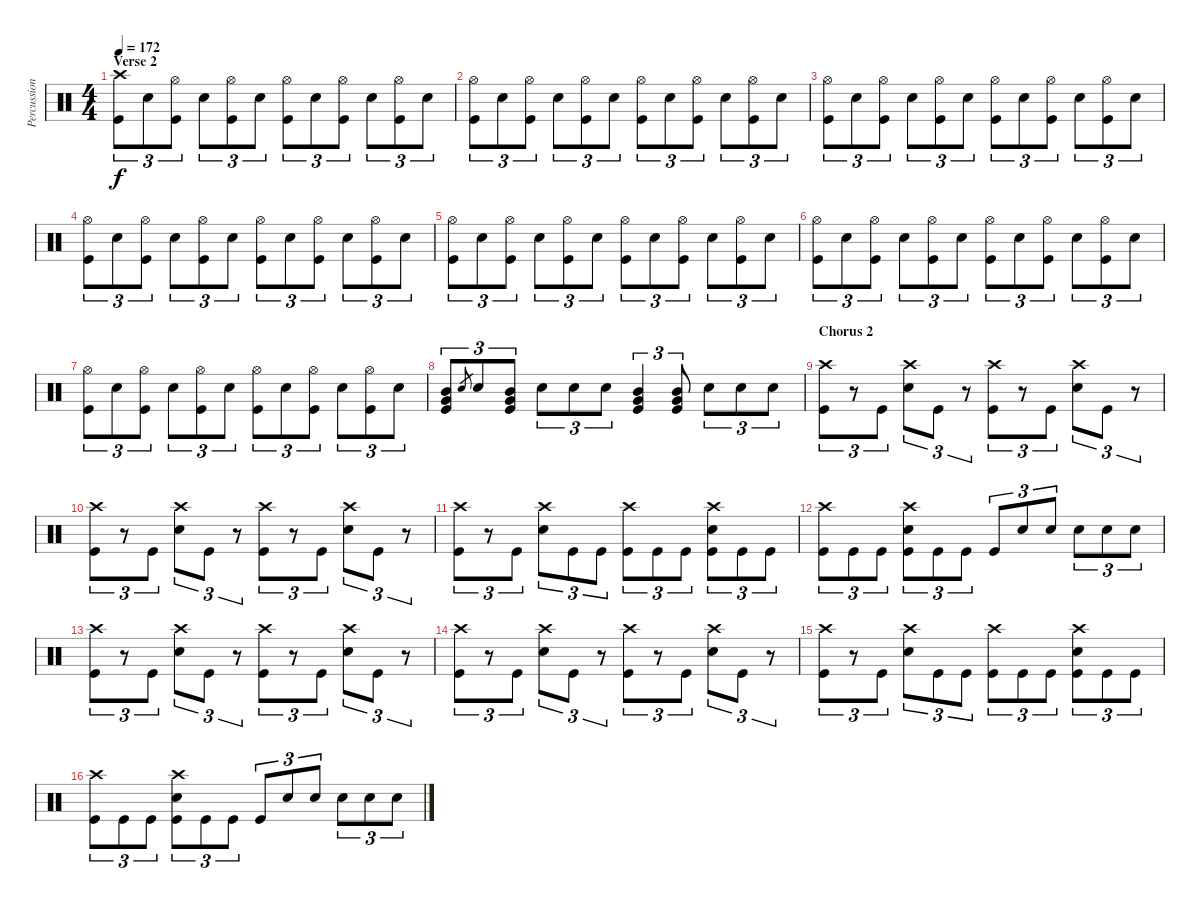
\track ("Percussion" "Percussion") {instrument percussion}
\staff {score}
\articulation defaults
\ts (4 4)
\section ("" "Verse 2")
\tempo 172
\clef neutral
\ks c
("Crash high (hit)" "Kick (hit)").8{tu (3 2) dy f} "Snare (hit) 2".8{tu (3 2)} ("Hi-Hat (open)" "Kick (hit)").8{tu (3 2)} "Snare (hit) 2".8{tu (3 2)} ("Hi-Hat (open)" "Kick (hit)").8{tu (3 2)} "Snare (hit) 2".8{tu (3 2)} ("Hi-Hat (open)" "Kick (hit)").8{tu (3 2)} "Snare (hit) 2".8{tu (3 2)} ("Hi-Hat (open)" "Kick (hit)").8{tu (3 2)} "Snare (hit) 2".8{tu (3 2)} ("Hi-Hat (open)" "Kick (hit)").8{tu (3 2)} "Snare (hit) 2".8{tu (3 2)} |
("Hi-Hat (open)" "Kick (hit)").8{tu (3 2)} "Snare (hit) 2".8{tu (3 2)} ("Hi-Hat (open)" "Kick (hit)").8{tu (3 2)} "Snare (hit) 2".8{tu (3 2)} ("Hi-Hat (open)" "Kick (hit)").8{tu (3 2)} "Snare (hit) 2".8{tu (3 2)} ("Hi-Hat (open)" "Kick (hit)").8{tu (3 2)} "Snare (hit) 2".8{tu (3 2)} ("Hi-Hat (open)" "Kick (hit)").8{tu (3 2)} "Snare (hit) 2".8{tu (3 2)} ("Hi-Hat (open)" "Kick (hit)").8{tu (3 2)} "Snare (hit) 2".8{tu (3 2)} |
("Hi-Hat (open)" "Kick (hit)").8{tu (3 2)} "Snare (hit) 2".8{tu (3 2)} ("Hi-Hat (open)" "Kick (hit)").8{tu (3 2)} "Snare (hit) 2".8{tu (3 2)} ("Hi-Hat (open)" "Kick (hit)").8{tu (3 2)} "Snare (hit) 2".8{tu (3 2)} ("Hi-Hat (open)" "Kick (hit)").8{tu (3 2)} "Snare (hit) 2".8{tu (3 2)} ("Hi-Hat (open)" "Kick (hit)").8{tu (3 2)} "Snare (hit) 2".8{tu (3 2)} ("Hi-Hat (open)" "Kick (hit)").8{tu (3 2)} "Snare (hit) 2".8{tu (3 2)} |
("Hi-Hat (open)" "Kick (hit)").8{tu (3 2)} "Snare (hit) 2".8{tu (3 2)} ("Hi-Hat (open)" "Kick (hit)").8{tu (3 2)} "Snare (hit) 2".8{tu (3 2)} ("Hi-Hat (open)" "Kick (hit)").8{tu (3 2)} "Snare (hit) 2".8{tu (3 2)} ("Hi-Hat (open)" "Kick (hit)").8{tu (3 2)} "Snare (hit) 2".8{tu (3 2)} ("Hi-Hat (open)" "Kick (hit)").8{tu (3 2)} "Snare (hit) 2".8{tu (3 2)} ("Hi-Hat (open)" "Kick (hit)").8{tu (3 2)} "Snare (hit) 2".8{tu (3 2)} |
("Hi-Hat (open)" "Kick (hit)").8{tu (3 2)} "Snare (hit) 2".8{tu (3 2)} ("Hi-Hat (open)" "Kick (hit)").8{tu (3 2)} "Snare (hit) 2".8{tu (3 2)} ("Hi-Hat (open)" "Kick (hit)").8{tu (3 2)} "Snare (hit) 2".8{tu (3 2)} ("Hi-Hat (open)" "Kick (hit)").8{tu (3 2)} "Snare (hit) 2".8{tu (3 2)} ("Hi-Hat (open)" "Kick (hit)").8{tu (3 2)} "Snare (hit) 2".8{tu (3 2)} ("Hi-Hat (open)" "Kick (hit)").8{tu (3 2)} "Snare (hit) 2".8{tu (3 2)} |
("Hi-Hat (open)" "Kick (hit)").8{tu (3 2)} "Snare (hit) 2".8{tu (3 2)} ("Hi-Hat (open)" "Kick (hit)").8{tu (3 2)} "Snare (hit) 2".8{tu (3 2)} ("Hi-Hat (open)" "Kick (hit)").8{tu (3 2)} "Snare (hit) 2".8{tu (3 2)} ("Hi-Hat (open)" "Kick (hit)").8{tu (3 2)} "Snare (hit) 2".8{tu (3 2)} ("Hi-Hat (open)" "Kick (hit)").8{tu (3 2)} "Snare (hit) 2".8{tu (3 2)} ("Hi-Hat (open)" "Kick (hit)").8{tu (3 2)} "Snare (hit) 2".8{tu (3 2)} |
("Hi-Hat (open)" "Kick (hit)").8{tu (3 2)} "Snare (hit) 2".8{tu (3 2)} ("Hi-Hat (open)" "Kick (hit)").8{tu (3 2)} "Snare (hit) 2".8{tu (3 2)} ("Hi-Hat (open)" "Kick (hit)").8{tu (3 2)} "Snare (hit) 2".8{tu (3 2)} ("Hi-Hat (open)" "Kick (hit)").8{tu (3 2)} "Snare (hit) 2".8{tu (3 2)} ("Hi-Hat (open)" "Kick (hit)").8{tu (3 2)} "Snare (hit) 2".8{tu (3 2)} ("Hi-Hat (open)" "Kick (hit)").8{tu (3 2)} "Snare (hit) 2".8{tu (3 2)} |
("Mid Tom (hit)" "Very Low Tom (hit)" "Kick (hit)").8{tu (3 2)} "Snare (hit) 2".8{gr} "Snare (hit) 2".8{tu (3 2)} ("Mid Tom (hit)" "Very Low Tom (hit)" "Kick (hit)").8{tu (3 2)} "Snare (hit) 2".8{tu (3 2)} "Snare (hit) 2".8{tu (3 2)} "Snare (hit) 2".8{tu (3 2)} ("Mid Tom (hit)" "Very Low Tom (hit)" "Kick (hit)").4{tu (3 2)} ("Mid Tom (hit)" "Very Low Tom (hit)" "Kick (hit)").8{tu (3 2)} "Snare (hit) 2".8{tu (3 2)} "Snare (hit) 2".8{tu (3 2)} "Snare (hit) 2".8{tu (3 2)} |
\section ("" "Chorus 2")
("Crash high (hit)" "Kick (hit)").8{tu (3 2)} r.8{tu (3 2)} "Kick (hit)".8{tu (3 2)} ("Crash high (hit)" "Snare (hit) 2").8{tu (3 2)} "Kick (hit)".8{tu (3 2)} r.8{tu (3 2)} ("Crash high (hit)" "Kick (hit)").8{tu (3 2)} r.8{tu (3 2)} "Kick (hit)".8{tu (3 2)} ("Crash high (hit)" "Snare (hit) 2").8{tu (3 2)} "Kick (hit)".8{tu (3 2)} r.8{tu (3 2)} |
("Crash high (hit)" "Kick (hit)").8{tu (3 2)} r.8{tu (3 2)} "Kick (hit)".8{tu (3 2)} ("Crash high (hit)" "Snare (hit) 2").8{tu (3 2)} "Kick (hit)".8{tu (3 2)} r.8{tu (3 2)} ("Crash high (hit)" "Kick (hit)").8{tu (3 2)} r.8{tu (3 2)} "Kick (hit)".8{tu (3 2)} ("Crash high (hit)" "Snare (hit) 2").8{tu (3 2)} "Kick (hit)".8{tu (3 2)} r.8{tu (3 2)} |
("Crash high (hit)" "Kick (hit)").8{tu (3 2)} r.8{tu (3 2)} "Kick (hit)".8{tu (3 2)} ("Crash high (hit)" "Snare (hit) 2").8{tu (3 2)} "Kick (hit)".8{tu (3 2)} "Kick (hit)".8{tu (3 2)} ("Crash high (hit)" "Kick (hit)").8{tu (3 2)} "Kick (hit)".8{tu (3 2)} "Kick (hit)".8{tu (3 2)} ("Crash high (hit)" "Snare (hit) 2" "Kick (hit)").8{tu (3 2)} "Kick (hit)".8{tu (3 2)} "Kick (hit)".8{tu (3 2)} |
("Crash high (hit)" "Kick (hit)").8{tu (3 2)} "Kick (hit)".8{tu (3 2)} "Kick (hit)".8{tu (3 2)} ("Crash high (hit)" "Snare (hit) 2" "Kick (hit)").8{tu (3 2)} "Kick (hit)".8{tu (3 2)} "Kick (hit)".8{tu (3 2)} "Kick (hit)".8{tu (3 2)} "Snare (hit) 2".8{tu (3 2)} "Snare (hit) 2".8{tu (3 2)} "Snare (hit) 2".8{tu (3 2)} "Snare (hit) 2".8{tu (3 2)} "Snare (hit) 2".8{tu (3 2)} |
("Crash high (hit)" "Kick (hit)").8{tu (3 2)} r.8{tu (3 2)} "Kick (hit)".8{tu (3 2)} ("Crash high (hit)" "Snare (hit) 2").8{tu (3 2)} "Kick (hit)".8{tu (3 2)} r.8{tu (3 2)} ("Crash high (hit)" "Kick (hit)").8{tu (3 2)} r.8{tu (3 2)} "Kick (hit)".8{tu (3 2)} ("Crash high (hit)" "Snare (hit) 2").8{tu (3 2)} "Kick (hit)".8{tu (3 2)} r.8{tu (3 2)} |
("Crash high (hit)" "Kick (hit)").8{tu (3 2)} r.8{tu (3 2)} "Kick (hit)".8{tu (3 2)} ("Crash high (hit)" "Snare (hit) 2").8{tu (3 2)} "Kick (hit)".8{tu (3 2)} r.8{tu (3 2)} ("Crash high (hit)" "Kick (hit)").8{tu (3 2)} r.8{tu (3 2)} "Kick (hit)".8{tu (3 2)} ("Crash high (hit)" "Snare (hit) 2").8{tu (3 2)} "Kick (hit)".8{tu (3 2)} r.8{tu (3 2)} |
("Crash high (hit)" "Kick (hit)").8{tu (3 2)} r.8{tu (3 2)} "Kick (hit)".8{tu (3 2)} ("Crash high (hit)" "Snare (hit) 2").8{tu (3 2)} "Kick (hit)".8{tu (3 2)} "Kick (hit)".8{tu (3 2)} ("Crash high (hit)" "Kick (hit)").8{tu (3 2)} "Kick (hit)".8{tu (3 2)} "Kick (hit)".8{tu (3 2)} ("Crash high (hit)" "Snare (hit) 2" "Kick (hit)").8{tu (3 2)} "Kick (hit)".8{tu (3 2)} "Kick (hit)".8{tu (3 2)} |
("Crash high (hit)" "Kick (hit)").8{tu (3 2)} "Kick (hit)".8{tu (3 2)} "Kick (hit)".8{tu (3 2)} ("Crash high (hit)" "Snare (hit) 2" "Kick (hit)").8{tu (3 2)} "Kick (hit)".8{tu (3 2)} "Kick (hit)".8{tu (3 2)} "Kick (hit)".8{tu (3 2)} "Snare (hit) 2".8{tu (3 2)} "Snare (hit) 2".8{tu (3 2)} "Snare (hit) 2".8{tu (3 2)} "Snare (hit) 2".8{tu (3 2)} "Snare (hit) 2".8{tu (3 2)}
